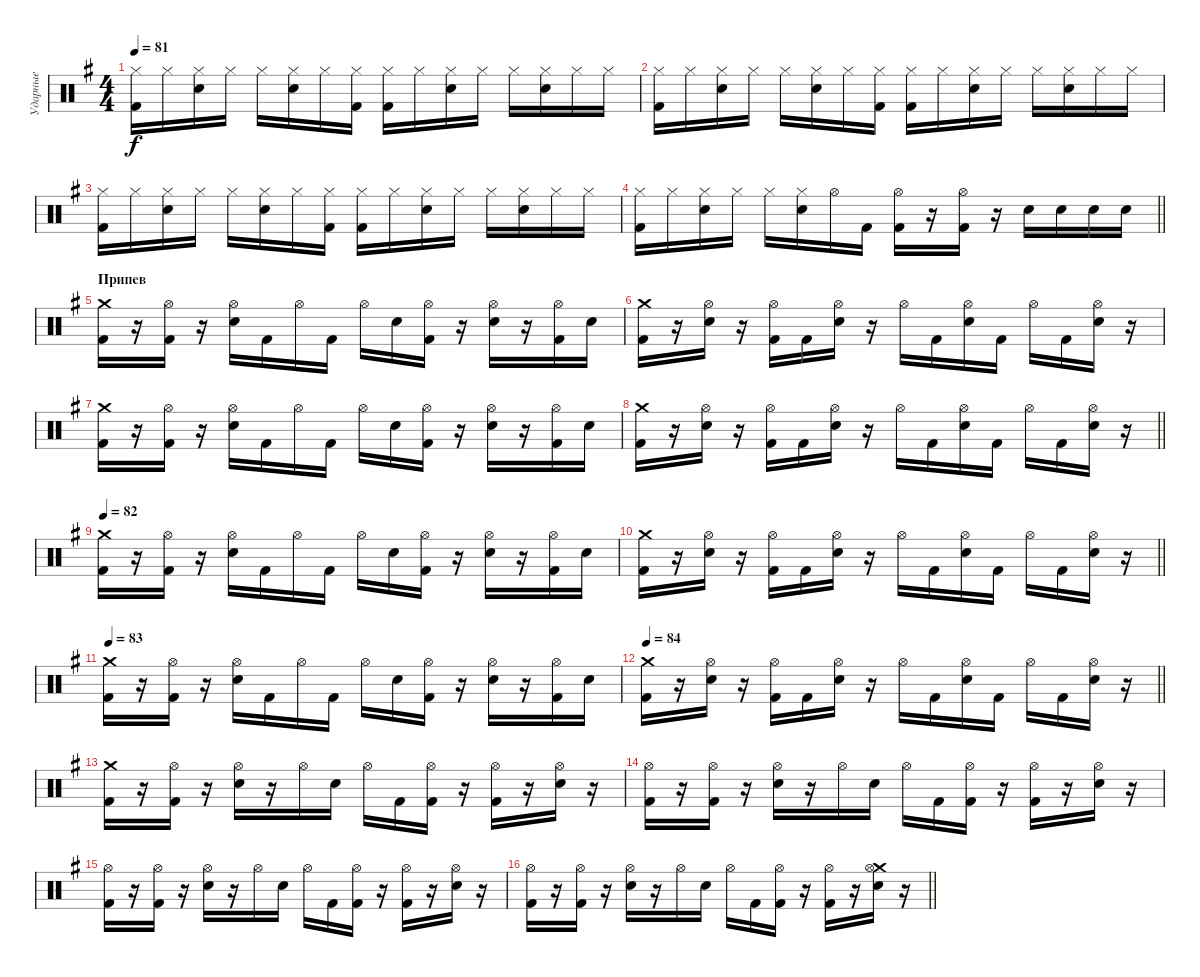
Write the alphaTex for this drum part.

\track ("Ударные" "Ударные") {instrument percussion}
\staff {score}
\articulation defaults
\ts (4 4)
\tempo 81
\clef neutral
\ks eminor
("Hi-Hat (closed)" "Kick (hit) 2").16{dy f} "Hi-Hat (closed)".16 ("Hi-Hat (closed)" "Electric Snare (hit)").16 "Hi-Hat (closed)".16 "Hi-Hat (closed)".16 ("Hi-Hat (closed)" "Electric Snare (hit)").16 "Hi-Hat (closed)".16 ("Hi-Hat (closed)" "Kick (hit) 2").16 ("Hi-Hat (closed)" "Kick (hit) 2").16 "Hi-Hat (closed)".16 ("Hi-Hat (closed)" "Electric Snare (hit)").16 "Hi-Hat (closed)".16 "Hi-Hat (closed)".16 ("Hi-Hat (closed)" "Electric Snare (hit)").16 "Hi-Hat (closed)".16 "Hi-Hat (closed)".16 |
("Hi-Hat (closed)" "Kick (hit) 2").16 "Hi-Hat (closed)".16 ("Hi-Hat (closed)" "Electric Snare (hit)").16 "Hi-Hat (closed)".16 "Hi-Hat (closed)".16 ("Hi-Hat (closed)" "Electric Snare (hit)").16 "Hi-Hat (closed)".16 ("Hi-Hat (closed)" "Kick (hit) 2").16 ("Hi-Hat (closed)" "Kick (hit) 2").16 "Hi-Hat (closed)".16 ("Hi-Hat (closed)" "Electric Snare (hit)").16 "Hi-Hat (closed)".16 "Hi-Hat (closed)".16 ("Hi-Hat (closed)" "Electric Snare (hit)").16 "Hi-Hat (closed)".16 "Hi-Hat (closed)".16 |
("Hi-Hat (closed)" "Kick (hit) 2").16 "Hi-Hat (closed)".16 ("Hi-Hat (closed)" "Electric Snare (hit)").16 "Hi-Hat (closed)".16 "Hi-Hat (closed)".16 ("Hi-Hat (closed)" "Electric Snare (hit)").16 "Hi-Hat (closed)".16 ("Hi-Hat (closed)" "Kick (hit) 2").16 ("Hi-Hat (closed)" "Kick (hit) 2").16 "Hi-Hat (closed)".16 ("Hi-Hat (closed)" "Electric Snare (hit)").16 "Hi-Hat (closed)".16 "Hi-Hat (closed)".16 ("Hi-Hat (closed)" "Electric Snare (hit)").16 "Hi-Hat (closed)".16 "Hi-Hat (closed)".16 |
\barLineRight lightlight
("Hi-Hat (closed)" "Kick (hit) 2").16 "Hi-Hat (closed)".16 ("Hi-Hat (closed)" "Electric Snare (hit)").16 "Hi-Hat (closed)".16 "Hi-Hat (closed)".16 ("Hi-Hat (closed)" "Electric Snare (hit)").16 "Hi-Hat (open)".16 "Kick (hit) 2".16 ("Hi-Hat (open)" "Kick (hit) 2").16 r.16 ("Hi-Hat (open)" "Kick (hit) 2").16 r.16 "Electric Snare (hit)".16 "Electric Snare (hit)".16 "Electric Snare (hit)".16 "Electric Snare (hit)".16 |
\section ("" "Припев")
("Crash medium (hit)" "Kick (hit) 2").16 r.16 ("Hi-Hat (open)" "Kick (hit) 2").16 r.16 ("Hi-Hat (open)" "Electric Snare (hit)").16 "Kick (hit) 2".16 "Hi-Hat (open)".16 "Kick (hit) 2".16 "Hi-Hat (open)".16 "Electric Snare (hit)".16 ("Hi-Hat (open)" "Kick (hit) 2").16 r.16 ("Hi-Hat (open)" "Electric Snare (hit)").16 r.16 ("Hi-Hat (open)" "Kick (hit) 2").16 "Electric Snare (hit)".16 |
("Crash medium (hit)" "Kick (hit) 2").16 r.16 ("Hi-Hat (open)" "Electric Snare (hit)").16 r.16 ("Hi-Hat (open)" "Kick (hit) 2").16 "Kick (hit) 2".16 ("Hi-Hat (open)" "Electric Snare (hit)").16 r.16 "Hi-Hat (open)".16 "Kick (hit) 2".16 ("Hi-Hat (open)" "Electric Snare (hit)").16 "Kick (hit) 2".16 "Hi-Hat (open)".16 "Kick (hit) 2".16 ("Hi-Hat (open)" "Electric Snare (hit)").16 r.16 |
("Crash medium (hit)" "Kick (hit) 2").16 r.16 ("Hi-Hat (open)" "Kick (hit) 2").16 r.16 ("Hi-Hat (open)" "Electric Snare (hit)").16 "Kick (hit) 2".16 "Hi-Hat (open)".16 "Kick (hit) 2".16 "Hi-Hat (open)".16 "Electric Snare (hit)".16 ("Hi-Hat (open)" "Kick (hit) 2").16 r.16 ("Hi-Hat (open)" "Electric Snare (hit)").16 r.16 ("Hi-Hat (open)" "Kick (hit) 2").16 "Electric Snare (hit)".16 |
\barLineRight lightlight
("Crash medium (hit)" "Kick (hit) 2").16 r.16 ("Hi-Hat (open)" "Electric Snare (hit)").16 r.16 ("Hi-Hat (open)" "Kick (hit) 2").16 "Kick (hit) 2".16 ("Hi-Hat (open)" "Electric Snare (hit)").16 r.16 "Hi-Hat (open)".16 "Kick (hit) 2".16 ("Hi-Hat (open)" "Electric Snare (hit)").16 "Kick (hit) 2".16 "Hi-Hat (open)".16 "Kick (hit) 2".16 ("Hi-Hat (open)" "Electric Snare (hit)").16 r.16 |
\tempo 82
("Crash medium (hit)" "Kick (hit) 2").16 r.16 ("Hi-Hat (open)" "Kick (hit) 2").16 r.16 ("Hi-Hat (open)" "Electric Snare (hit)").16 "Kick (hit) 2".16 "Hi-Hat (open)".16 "Kick (hit) 2".16 "Hi-Hat (open)".16 "Electric Snare (hit)".16 ("Hi-Hat (open)" "Kick (hit) 2").16 r.16 ("Hi-Hat (open)" "Electric Snare (hit)").16 r.16 ("Hi-Hat (open)" "Kick (hit) 2").16 "Electric Snare (hit)".16 |
\barLineRight lightlight
("Crash medium (hit)" "Kick (hit) 2").16 r.16 ("Hi-Hat (open)" "Electric Snare (hit)").16 r.16 ("Hi-Hat (open)" "Kick (hit) 2").16 "Kick (hit) 2".16 ("Hi-Hat (open)" "Electric Snare (hit)").16 r.16 "Hi-Hat (open)".16 "Kick (hit) 2".16 ("Hi-Hat (open)" "Electric Snare (hit)").16 "Kick (hit) 2".16 "Hi-Hat (open)".16 "Kick (hit) 2".16 ("Hi-Hat (open)" "Electric Snare (hit)").16 r.16 |
\tempo 83
("Crash medium (hit)" "Kick (hit) 2").16 r.16 ("Hi-Hat (open)" "Kick (hit) 2").16 r.16 ("Hi-Hat (open)" "Electric Snare (hit)").16 "Kick (hit) 2".16 "Hi-Hat (open)".16 "Kick (hit) 2".16 "Hi-Hat (open)".16 "Electric Snare (hit)".16 ("Hi-Hat (open)" "Kick (hit) 2").16 r.16 ("Hi-Hat (open)" "Electric Snare (hit)").16 r.16 ("Hi-Hat (open)" "Kick (hit) 2").16 "Electric Snare (hit)".16 |
\tempo 84
\barLineRight lightlight
("Crash medium (hit)" "Kick (hit) 2").16 r.16 ("Hi-Hat (open)" "Electric Snare (hit)").16 r.16 ("Hi-Hat (open)" "Kick (hit) 2").16 "Kick (hit) 2".16 ("Hi-Hat (open)" "Electric Snare (hit)").16 r.16 "Hi-Hat (open)".16 "Kick (hit) 2".16 ("Hi-Hat (open)" "Electric Snare (hit)").16 "Kick (hit) 2".16 "Hi-Hat (open)".16 "Kick (hit) 2".16 ("Hi-Hat (open)" "Electric Snare (hit)").16 r.16 |
("Crash medium (hit)" "Kick (hit) 2").16 r.16 ("Hi-Hat (open)" "Kick (hit) 2").16 r.16 ("Hi-Hat (open)" "Electric Snare (hit)").16 r.16 "Hi-Hat (open)".16 "Electric Snare (hit)".16 "Hi-Hat (open)".16 "Kick (hit) 2".16 ("Hi-Hat (open)" "Kick (hit) 2").16 r.16 ("Hi-Hat (open)" "Kick (hit) 2").16 r.16 ("Hi-Hat (open)" "Electric Snare (hit)").16 r.16 |
("Hi-Hat (open)" "Kick (hit) 2").16 r.16 ("Hi-Hat (open)" "Kick (hit) 2").16 r.16 ("Hi-Hat (open)" "Electric Snare (hit)").16 r.16 "Hi-Hat (open)".16 "Electric Snare (hit)".16 "Hi-Hat (open)".16 "Kick (hit) 2".16 ("Hi-Hat (open)" "Kick (hit) 2").16 r.16 ("Hi-Hat (open)" "Kick (hit) 2").16 r.16 ("Hi-Hat (open)" "Electric Snare (hit)").16 r.16 |
("Hi-Hat (open)" "Kick (hit) 2").16 r.16 ("Hi-Hat (open)" "Kick (hit) 2").16 r.16 ("Hi-Hat (open)" "Electric Snare (hit)").16 r.16 "Hi-Hat (open)".16 "Electric Snare (hit)".16 "Hi-Hat (open)".16 "Kick (hit) 2".16 ("Hi-Hat (open)" "Kick (hit) 2").16 r.16 ("Hi-Hat (open)" "Kick (hit) 2").16 r.16 ("Hi-Hat (open)" "Electric Snare (hit)").16 r.16 |
\barLineRight lightlight
("Hi-Hat (open)" "Kick (hit) 2").16 r.16 ("Hi-Hat (open)" "Kick (hit) 2").16 r.16 ("Hi-Hat (open)" "Electric Snare (hit)").16 r.16 "Hi-Hat (open)".16 "Electric Snare (hit)".16 "Hi-Hat (open)".16 "Kick (hit) 2".16 ("Hi-Hat (open)" "Kick (hit) 2").16 r.16 ("Hi-Hat (open)" "Kick (hit) 2").16 r.16 ("Crash medium (hit)" "Hi-Hat (open)" "Electric Snare (hit)").16 r.16
